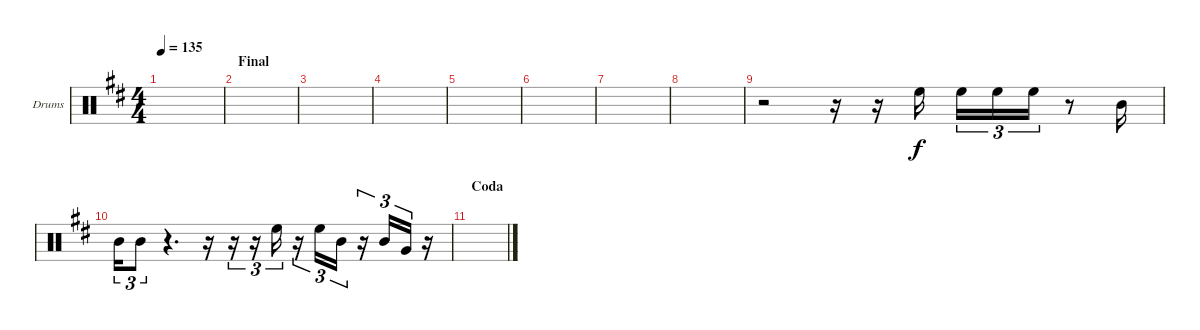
\bracketExtendMode groupsimilarinstruments
\firstSystemTrackNameOrientation horizontal
\otherSystemsTrackNameOrientation horizontal
\track ("Tom" "Drums") {instrument percussion}
\staff {score}
\articulation defaults
\ts (4 4)
\tempo 135
\clef neutral
\ks d
|
\section ("" "Final")
|
|
|
|
|
|
|
r.2 r.16 r.16 "High Floor Tom (hit)".16 "High Floor Tom (hit)".16{tu (3 2)} "High Floor Tom (hit)".16{tu (3 2)} "High Floor Tom (hit)".16{tu (3 2)} r.8 "Mid Tom (hit)".16 |
"Mid Tom (hit)".16{tu (3 2)} "Mid Tom (hit)".8{tu (3 2)} r.4{d} r.16 r.16{tu (3 2)} r.16{tu (3 2)} "High Floor Tom (hit)".16{tu (3 2)} r.16{tu (3 2)} "High Floor Tom (hit)".16{tu (3 2)} "Mid Tom (hit)".16{tu (3 2)} r.16{tu (3 2)} "Mid Tom (hit)".16{tu (3 2)} "Very Low Tom (hit)".16{tu (3 2)} r.16 |
\section ("" "Coda")
